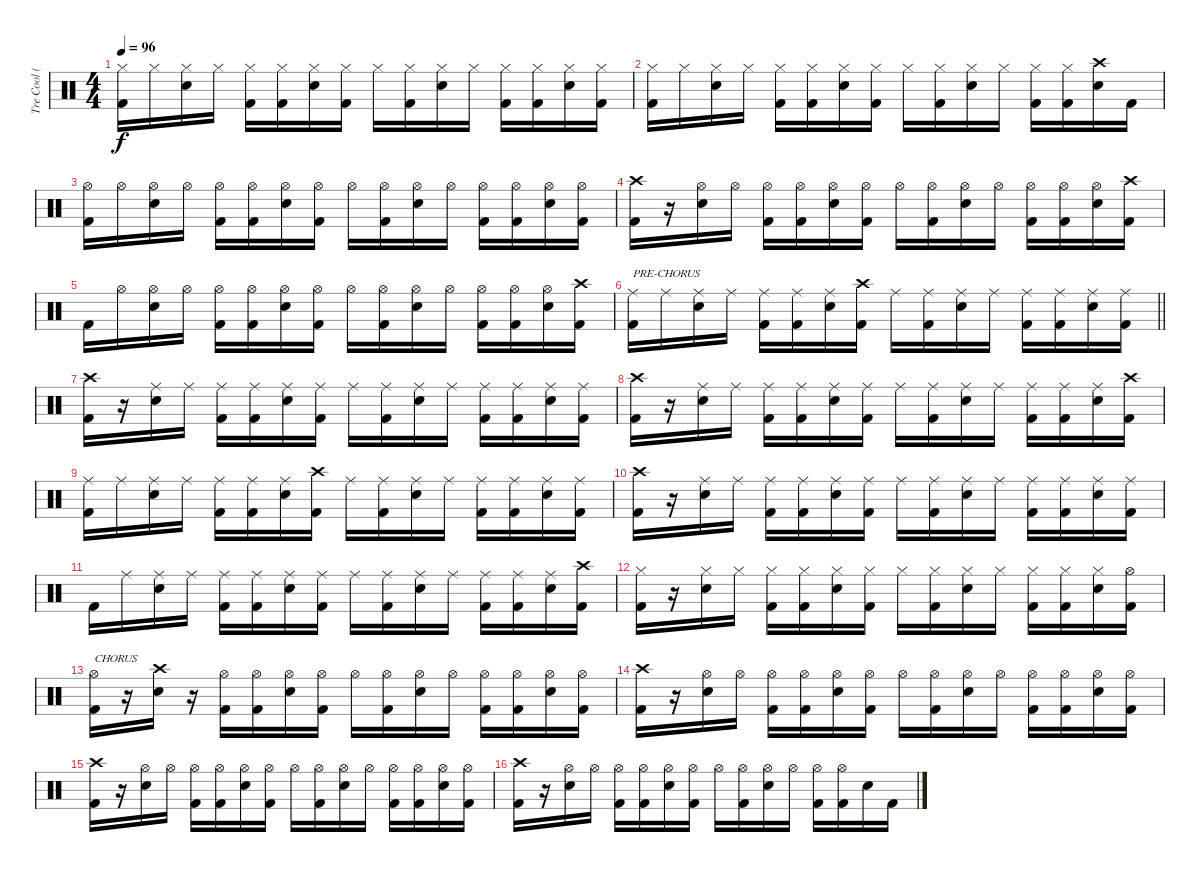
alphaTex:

\track ("Tre Cool (Drums)" "Tre Cool (") {instrument percussion}
\staff {score}
\articulation defaults
\ts (4 4)
\tempo 96
\clef neutral
\ks c
("Hi-Hat (closed)" "Kick (hit) 2").16{dy f} "Hi-Hat (closed)".16 ("Hi-Hat (closed)" "Electric Snare (hit)").16 "Hi-Hat (closed)".16 ("Hi-Hat (closed)" "Kick (hit) 2").16 ("Hi-Hat (closed)" "Kick (hit) 2").16 ("Hi-Hat (closed)" "Electric Snare (hit)").16 ("Hi-Hat (closed)" "Kick (hit) 2").16 "Hi-Hat (closed)".16 ("Hi-Hat (closed)" "Kick (hit) 2").16 ("Hi-Hat (closed)" "Electric Snare (hit)").16 "Hi-Hat (closed)".16 ("Hi-Hat (closed)" "Kick (hit) 2").16 ("Hi-Hat (closed)" "Kick (hit) 2").16 ("Hi-Hat (closed)" "Electric Snare (hit)").16 ("Hi-Hat (closed)" "Kick (hit) 2").16 |
("Hi-Hat (closed)" "Kick (hit) 2").16 "Hi-Hat (closed)".16 ("Hi-Hat (closed)" "Electric Snare (hit)").16 "Hi-Hat (closed)".16 ("Hi-Hat (closed)" "Kick (hit) 2").16 ("Hi-Hat (closed)" "Kick (hit) 2").16 ("Hi-Hat (closed)" "Electric Snare (hit)").16 ("Hi-Hat (closed)" "Kick (hit) 2").16 "Hi-Hat (closed)".16 ("Hi-Hat (closed)" "Kick (hit) 2").16 ("Hi-Hat (closed)" "Electric Snare (hit)").16 "Hi-Hat (closed)".16 ("Hi-Hat (closed)" "Kick (hit) 2").16 ("Hi-Hat (closed)" "Kick (hit) 2").16 ("Crash high (hit)" "Electric Snare (hit)").16 "Kick (hit) 2".16 |
("Hi-Hat (open)" "Kick (hit) 2").16 "Hi-Hat (open)".16 ("Hi-Hat (open)" "Electric Snare (hit)").16 "Hi-Hat (open)".16 ("Hi-Hat (open)" "Kick (hit) 2").16 ("Hi-Hat (open)" "Kick (hit) 2").16 ("Hi-Hat (open)" "Electric Snare (hit)").16 ("Hi-Hat (open)" "Kick (hit) 2").16 "Hi-Hat (open)".16 ("Hi-Hat (open)" "Kick (hit) 2").16 ("Hi-Hat (open)" "Electric Snare (hit)").16 "Hi-Hat (open)".16 ("Hi-Hat (open)" "Kick (hit) 2").16 ("Hi-Hat (open)" "Kick (hit) 2").16 ("Hi-Hat (open)" "Electric Snare (hit)").16 ("Hi-Hat (open)" "Kick (hit) 2").16 |
("Crash high (hit)" "Kick (hit) 2").16 r.16 ("Hi-Hat (open)" "Electric Snare (hit)").16 "Hi-Hat (open)".16 ("Hi-Hat (open)" "Kick (hit) 2").16 ("Hi-Hat (open)" "Kick (hit) 2").16 ("Hi-Hat (open)" "Electric Snare (hit)").16 ("Hi-Hat (open)" "Kick (hit) 2").16 "Hi-Hat (open)".16 ("Hi-Hat (open)" "Kick (hit) 2").16 ("Hi-Hat (open)" "Electric Snare (hit)").16 "Hi-Hat (open)".16 ("Hi-Hat (open)" "Kick (hit) 2").16 ("Hi-Hat (open)" "Kick (hit) 2").16 ("Hi-Hat (open)" "Electric Snare (hit)").16 ("Crash high (hit)" "Kick (hit) 2").16 |
"Kick (hit) 2".16 "Hi-Hat (open)".16 ("Hi-Hat (open)" "Electric Snare (hit)").16 "Hi-Hat (open)".16 ("Hi-Hat (open)" "Kick (hit) 2").16 ("Hi-Hat (open)" "Kick (hit) 2").16 ("Hi-Hat (open)" "Electric Snare (hit)").16 ("Hi-Hat (open)" "Kick (hit) 2").16 "Hi-Hat (open)".16 ("Hi-Hat (open)" "Kick (hit) 2").16 ("Hi-Hat (open)" "Electric Snare (hit)").16 "Hi-Hat (open)".16 ("Hi-Hat (open)" "Kick (hit) 2").16 ("Hi-Hat (open)" "Kick (hit) 2").16 ("Hi-Hat (open)" "Electric Snare (hit)").16 ("Crash high (hit)" "Kick (hit) 2").16 |
\barLineRight lightlight
("Ride (middle)" "Kick (hit) 2").16{txt "PRE-CHORUS"} "Ride (middle)".16 ("Ride (middle)" "Electric Snare (hit)").16 "Ride (middle)".16 ("Ride (middle)" "Kick (hit) 2").16 ("Ride (middle)" "Kick (hit) 2").16 ("Ride (middle)" "Electric Snare (hit)").16 ("Crash high (hit)" "Kick (hit) 2").16 "Ride (middle)".16 ("Ride (middle)" "Kick (hit) 2").16 ("Ride (middle)" "Electric Snare (hit)").16 "Ride (middle)".16 ("Ride (middle)" "Kick (hit) 2").16 ("Ride (middle)" "Kick (hit) 2").16 ("Ride (middle)" "Electric Snare (hit)").16 ("Ride (middle)" "Kick (hit) 2").16 |
("Crash high (hit)" "Kick (hit) 2").16 r.16 ("Ride (middle)" "Electric Snare (hit)").16 "Ride (middle)".16 ("Ride (middle)" "Kick (hit) 2").16 ("Ride (middle)" "Kick (hit) 2").16 ("Ride (middle)" "Electric Snare (hit)").16 ("Ride (middle)" "Kick (hit) 2").16 "Ride (middle)".16 ("Ride (middle)" "Kick (hit) 2").16 ("Ride (middle)" "Electric Snare (hit)").16 "Ride (middle)".16 ("Ride (middle)" "Kick (hit) 2").16 ("Ride (middle)" "Kick (hit) 2").16 ("Ride (middle)" "Electric Snare (hit)").16 ("Ride (middle)" "Kick (hit) 2").16 |
("Crash high (hit)" "Kick (hit) 2").16 r.16 ("Ride (middle)" "Electric Snare (hit)").16 "Ride (middle)".16 ("Ride (middle)" "Kick (hit) 2").16 ("Ride (middle)" "Kick (hit) 2").16 ("Ride (middle)" "Electric Snare (hit)").16 ("Ride (middle)" "Kick (hit) 2").16 "Ride (middle)".16 ("Ride (middle)" "Kick (hit) 2").16 ("Ride (middle)" "Electric Snare (hit)").16 "Ride (middle)".16 ("Ride (middle)" "Kick (hit) 2").16 ("Ride (middle)" "Kick (hit) 2").16 ("Ride (middle)" "Electric Snare (hit)").16 ("Crash high (hit)" "Kick (hit) 2").16 |
("Ride (middle)" "Kick (hit) 2").16 "Ride (middle)".16 ("Ride (middle)" "Electric Snare (hit)").16 "Ride (middle)".16 ("Ride (middle)" "Kick (hit) 2").16 ("Ride (middle)" "Kick (hit) 2").16 ("Ride (middle)" "Electric Snare (hit)").16 ("Crash high (hit)" "Kick (hit) 2").16 "Ride (middle)".16 ("Ride (middle)" "Kick (hit) 2").16 ("Ride (middle)" "Electric Snare (hit)").16 "Ride (middle)".16 ("Ride (middle)" "Kick (hit) 2").16 ("Ride (middle)" "Kick (hit) 2").16 ("Ride (middle)" "Electric Snare (hit)").16 ("Ride (middle)" "Kick (hit) 2").16 |
("Crash high (hit)" "Kick (hit) 2").16 r.16 ("Ride (middle)" "Electric Snare (hit)").16 "Ride (middle)".16 ("Ride (middle)" "Kick (hit) 2").16 ("Ride (middle)" "Kick (hit) 2").16 ("Ride (middle)" "Electric Snare (hit)").16 ("Ride (middle)" "Kick (hit) 2").16 "Ride (middle)".16 ("Ride (middle)" "Kick (hit) 2").16 ("Ride (middle)" "Electric Snare (hit)").16 "Ride (middle)".16 ("Ride (middle)" "Kick (hit) 2").16 ("Ride (middle)" "Kick (hit) 2").16 ("Ride (middle)" "Electric Snare (hit)").16 ("Ride (middle)" "Kick (hit) 2").16 |
"Kick (hit) 2".16 "Ride (middle)".16 ("Ride (middle)" "Electric Snare (hit)").16 "Ride (middle)".16 ("Ride (middle)" "Kick (hit) 2").16 ("Ride (middle)" "Kick (hit) 2").16 ("Ride (middle)" "Electric Snare (hit)").16 ("Ride (middle)" "Kick (hit) 2").16 "Ride (middle)".16 ("Ride (middle)" "Kick (hit) 2").16 ("Ride (middle)" "Electric Snare (hit)").16 "Ride (middle)".16 ("Ride (middle)" "Kick (hit) 2").16 ("Ride (middle)" "Kick (hit) 2").16 ("Ride (middle)" "Electric Snare (hit)").16 ("Crash high (hit)" "Kick (hit) 2").16 |
("Hi-Hat (closed)" "Kick (hit) 2").16 r.16 ("Hi-Hat (closed)" "Electric Snare (hit)").16 "Hi-Hat (closed)".16 ("Hi-Hat (closed)" "Kick (hit) 2").16 ("Hi-Hat (closed)" "Kick (hit) 2").16 ("Hi-Hat (closed)" "Electric Snare (hit)").16 ("Hi-Hat (closed)" "Kick (hit) 2").16 "Hi-Hat (closed)".16 ("Hi-Hat (closed)" "Kick (hit) 2").16 ("Hi-Hat (closed)" "Electric Snare (hit)").16 "Hi-Hat (closed)".16 ("Hi-Hat (closed)" "Kick (hit) 2").16 ("Hi-Hat (closed)" "Kick (hit) 2").16 ("Hi-Hat (closed)" "Electric Snare (hit)").16 ("Hi-Hat (open)" "Kick (hit) 2").16 |
("Hi-Hat (open)" "Kick (hit) 2").16{txt "CHORUS"} r.16 ("Crash high (hit)" "Electric Snare (hit)").16 r.16 ("Hi-Hat (open)" "Kick (hit) 2").16 ("Hi-Hat (open)" "Kick (hit) 2").16 ("Hi-Hat (open)" "Electric Snare (hit)").16 ("Hi-Hat (open)" "Kick (hit) 2").16 "Hi-Hat (open)".16 ("Hi-Hat (open)" "Kick (hit) 2").16 ("Hi-Hat (open)" "Electric Snare (hit)").16 "Hi-Hat (open)".16 ("Hi-Hat (open)" "Kick (hit) 2").16 ("Hi-Hat (open)" "Kick (hit) 2").16 ("Hi-Hat (open)" "Electric Snare (hit)").16 ("Hi-Hat (open)" "Kick (hit) 2").16 |
("Crash high (hit)" "Kick (hit) 2").16 r.16 ("Hi-Hat (open)" "Electric Snare (hit)").16 "Hi-Hat (open)".16 ("Hi-Hat (open)" "Kick (hit) 2").16 ("Hi-Hat (open)" "Kick (hit) 2").16 ("Hi-Hat (open)" "Electric Snare (hit)").16 ("Hi-Hat (open)" "Kick (hit) 2").16 "Hi-Hat (open)".16 ("Hi-Hat (open)" "Kick (hit) 2").16 ("Hi-Hat (open)" "Electric Snare (hit)").16 "Hi-Hat (open)".16 ("Hi-Hat (open)" "Kick (hit) 2").16 ("Hi-Hat (open)" "Kick (hit) 2").16 ("Hi-Hat (open)" "Electric Snare (hit)").16 ("Hi-Hat (open)" "Kick (hit) 2").16 |
("Crash high (hit)" "Kick (hit) 2").16 r.16 ("Hi-Hat (open)" "Electric Snare (hit)").16 "Hi-Hat (open)".16 ("Hi-Hat (open)" "Kick (hit) 2").16 ("Hi-Hat (open)" "Kick (hit) 2").16 ("Hi-Hat (open)" "Electric Snare (hit)").16 ("Hi-Hat (open)" "Kick (hit) 2").16 "Hi-Hat (open)".16 ("Hi-Hat (open)" "Kick (hit) 2").16 ("Hi-Hat (open)" "Electric Snare (hit)").16 "Hi-Hat (open)".16 ("Hi-Hat (open)" "Kick (hit) 2").16 ("Hi-Hat (open)" "Kick (hit) 2").16 ("Hi-Hat (open)" "Electric Snare (hit)").16 ("Hi-Hat (open)" "Kick (hit) 2").16 |
("Crash high (hit)" "Kick (hit) 2").16 r.16 ("Hi-Hat (open)" "Electric Snare (hit)").16 "Hi-Hat (open)".16 ("Hi-Hat (open)" "Kick (hit) 2").16 ("Hi-Hat (open)" "Kick (hit) 2").16 ("Hi-Hat (open)" "Electric Snare (hit)").16 ("Hi-Hat (open)" "Kick (hit) 2").16 "Hi-Hat (open)".16 ("Hi-Hat (open)" "Kick (hit) 2").16 ("Hi-Hat (open)" "Electric Snare (hit)").16 "Hi-Hat (open)".16 ("Hi-Hat (open)" "Kick (hit) 2").16 ("Hi-Hat (open)" "Kick (hit) 2").16 "Electric Snare (hit)".16 "Kick (hit) 2".16
